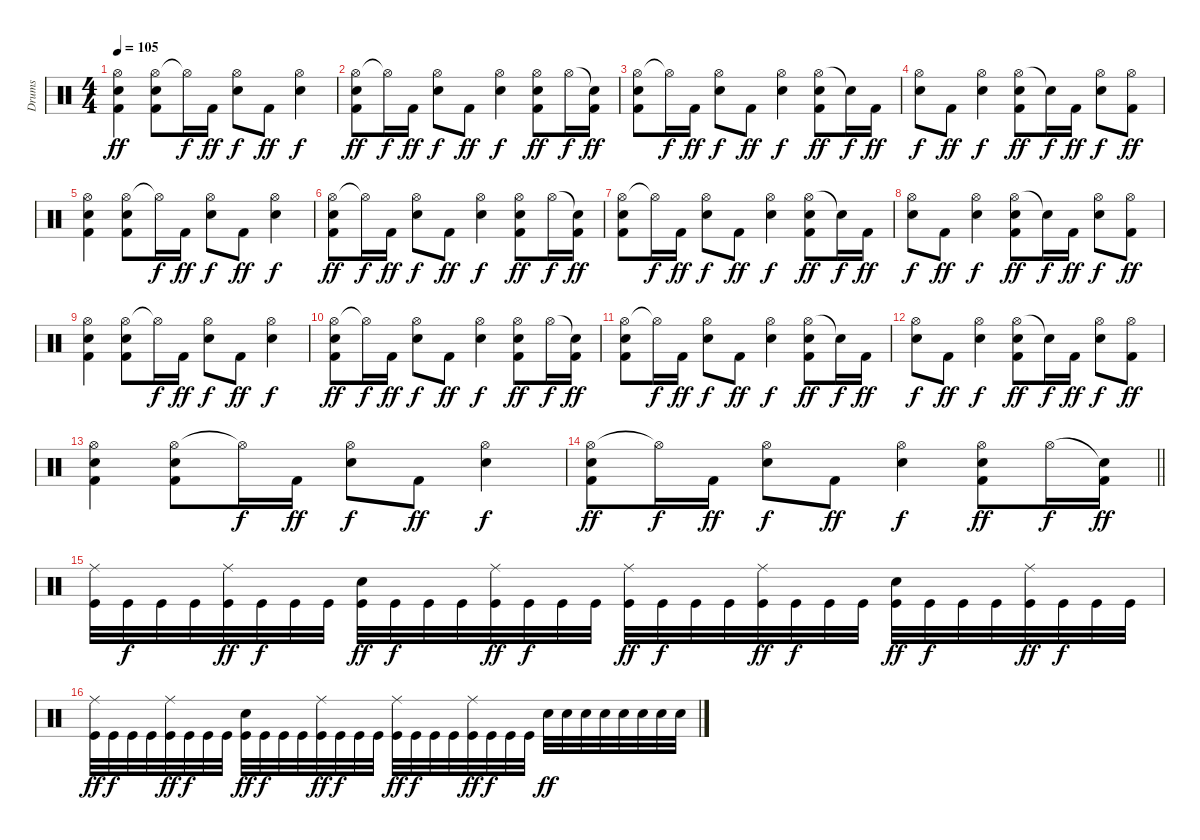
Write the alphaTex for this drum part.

\track ("Drums" "Drums") {instrument percussion}
\staff {score}
\articulation defaults
\ts (4 4)
\tempo 105
\clef neutral
\ks c
("Hi-Hat (open)" "Snare (hit) 2" "Kick (hit) 2").4{dy ff} ("Hi-Hat (open)" "Snare (hit) 2" "Kick (hit) 2").8 "Hi-Hat (open)"{t}.16{dy f} "Kick (hit) 2".16{dy ff} ("Hi-Hat (open)" "Snare (hit) 2").8{dy f} "Kick (hit) 2".8{dy ff} ("Hi-Hat (open)" "Snare (hit) 2").4{dy f} |
("Hi-Hat (open)" "Snare (hit) 2" "Kick (hit) 2").8{dy ff} "Hi-Hat (open)"{t}.16{dy f} "Kick (hit) 2".16{dy ff} ("Hi-Hat (open)" "Snare (hit) 2").8{dy f} "Kick (hit) 2".8{dy ff} ("Hi-Hat (open)" "Snare (hit) 2").4{dy f} ("Hi-Hat (open)" "Snare (hit) 2" "Kick (hit) 2").8{dy ff} "Hi-Hat (open)".16{dy f} ("Snare (hit)"{t} "Kick (hit) 2").16{dy ff} |
("Hi-Hat (open)" "Snare (hit) 2" "Kick (hit) 2").8 "Hi-Hat (open)"{t}.16{dy f} "Kick (hit) 2".16{dy ff} ("Hi-Hat (open)" "Snare (hit) 2").8{dy f} "Kick (hit) 2".8{dy ff} ("Hi-Hat (open)" "Snare (hit) 2").4{dy f} ("Hi-Hat (open)" "Snare (hit) 2" "Kick (hit) 2").8{dy ff} "Snare (hit)"{t}.16{dy f} "Kick (hit) 2".16{dy ff} |
("Hi-Hat (open)" "Snare (hit) 2").8{dy f} "Kick (hit) 2".8{dy ff} ("Hi-Hat (open)" "Snare (hit) 2").4{dy f} ("Hi-Hat (open)" "Snare (hit) 2" "Kick (hit) 2").8{dy ff} "Snare (hit)"{t}.16{dy f} "Kick (hit) 2".16{dy ff} ("Hi-Hat (open)" "Snare (hit) 2").8{dy f} ("Hi-Hat (open)" "Kick (hit) 2").8{dy ff} |
("Hi-Hat (open)" "Snare (hit) 2" "Kick (hit) 2").4 ("Hi-Hat (open)" "Snare (hit) 2" "Kick (hit) 2").8 "Hi-Hat (open)"{t}.16{dy f} "Kick (hit) 2".16{dy ff} ("Hi-Hat (open)" "Snare (hit) 2").8{dy f} "Kick (hit) 2".8{dy ff} ("Hi-Hat (open)" "Snare (hit) 2").4{dy f} |
("Hi-Hat (open)" "Snare (hit) 2" "Kick (hit) 2").8{dy ff} "Hi-Hat (open)"{t}.16{dy f} "Kick (hit) 2".16{dy ff} ("Hi-Hat (open)" "Snare (hit) 2").8{dy f} "Kick (hit) 2".8{dy ff} ("Hi-Hat (open)" "Snare (hit) 2").4{dy f} ("Hi-Hat (open)" "Snare (hit) 2" "Kick (hit) 2").8{dy ff} "Hi-Hat (open)".16{dy f} ("Snare (hit)"{t} "Kick (hit) 2").16{dy ff} |
("Hi-Hat (open)" "Snare (hit) 2" "Kick (hit) 2").8 "Hi-Hat (open)"{t}.16{dy f} "Kick (hit) 2".16{dy ff} ("Hi-Hat (open)" "Snare (hit) 2").8{dy f} "Kick (hit) 2".8{dy ff} ("Hi-Hat (open)" "Snare (hit) 2").4{dy f} ("Hi-Hat (open)" "Snare (hit) 2" "Kick (hit) 2").8{dy ff} "Snare (hit)"{t}.16{dy f} "Kick (hit) 2".16{dy ff} |
("Hi-Hat (open)" "Snare (hit) 2").8{dy f} "Kick (hit) 2".8{dy ff} ("Hi-Hat (open)" "Snare (hit) 2").4{dy f} ("Hi-Hat (open)" "Snare (hit) 2" "Kick (hit) 2").8{dy ff} "Snare (hit)"{t}.16{dy f} "Kick (hit) 2".16{dy ff} ("Hi-Hat (open)" "Snare (hit) 2").8{dy f} ("Hi-Hat (open)" "Kick (hit) 2").8{dy ff} |
("Hi-Hat (open)" "Snare (hit) 2" "Kick (hit) 2").4 ("Hi-Hat (open)" "Snare (hit) 2" "Kick (hit) 2").8 "Hi-Hat (open)"{t}.16{dy f} "Kick (hit) 2".16{dy ff} ("Hi-Hat (open)" "Snare (hit) 2").8{dy f} "Kick (hit) 2".8{dy ff} ("Hi-Hat (open)" "Snare (hit) 2").4{dy f} |
("Hi-Hat (open)" "Snare (hit) 2" "Kick (hit) 2").8{dy ff} "Hi-Hat (open)"{t}.16{dy f} "Kick (hit) 2".16{dy ff} ("Hi-Hat (open)" "Snare (hit) 2").8{dy f} "Kick (hit) 2".8{dy ff} ("Hi-Hat (open)" "Snare (hit) 2").4{dy f} ("Hi-Hat (open)" "Snare (hit) 2" "Kick (hit) 2").8{dy ff} "Hi-Hat (open)".16{dy f} ("Snare (hit)"{t} "Kick (hit) 2").16{dy ff} |
("Hi-Hat (open)" "Snare (hit) 2" "Kick (hit) 2").8 "Hi-Hat (open)"{t}.16{dy f} "Kick (hit) 2".16{dy ff} ("Hi-Hat (open)" "Snare (hit) 2").8{dy f} "Kick (hit) 2".8{dy ff} ("Hi-Hat (open)" "Snare (hit) 2").4{dy f} ("Hi-Hat (open)" "Snare (hit) 2" "Kick (hit) 2").8{dy ff} "Snare (hit)"{t}.16{dy f} "Kick (hit) 2".16{dy ff} |
("Hi-Hat (open)" "Snare (hit) 2").8{dy f} "Kick (hit) 2".8{dy ff} ("Hi-Hat (open)" "Snare (hit) 2").4{dy f} ("Hi-Hat (open)" "Snare (hit) 2" "Kick (hit) 2").8{dy ff} "Snare (hit)"{t}.16{dy f} "Kick (hit) 2".16{dy ff} ("Hi-Hat (open)" "Snare (hit) 2").8{dy f} ("Hi-Hat (open)" "Kick (hit) 2").8{dy ff} |
("Hi-Hat (open)" "Snare (hit) 2" "Kick (hit) 2").4 ("Hi-Hat (open)" "Snare (hit) 2" "Kick (hit) 2").8 "Hi-Hat (open)"{t}.16{dy f} "Kick (hit) 2".16{dy ff} ("Hi-Hat (open)" "Snare (hit) 2").8{dy f} "Kick (hit) 2".8{dy ff} ("Hi-Hat (open)" "Snare (hit) 2").4{dy f} |
\barLineRight lightlight
("Hi-Hat (open)" "Snare (hit) 2" "Kick (hit) 2").8{dy ff} "Hi-Hat (open)"{t}.16{dy f} "Kick (hit) 2".16{dy ff} ("Hi-Hat (open)" "Snare (hit) 2").8{dy f} "Kick (hit) 2".8{dy ff} ("Hi-Hat (open)" "Snare (hit) 2").4{dy f} ("Hi-Hat (open)" "Snare (hit) 2" "Kick (hit) 2").8{dy ff} "Hi-Hat (open)".16{dy f} ("Snare (hit)"{t} "Kick (hit) 2").16{dy ff} |
\section ("" "")
("Ride (middle)" "Kick (hit)").32 "Kick (hit)".32{dy f} "Kick (hit)".32 "Kick (hit)".32 ("Ride (middle)" "Kick (hit)").32{dy ff} "Kick (hit)".32{dy f} "Kick (hit)".32 "Kick (hit)".32 ("Snare (hit) 2" "Kick (hit)").32{dy ff} "Kick (hit)".32{dy f} "Kick (hit)".32 "Kick (hit)".32 ("Ride (middle)" "Kick (hit)").32{dy ff} "Kick (hit)".32{dy f} "Kick (hit)".32 "Kick (hit)".32 ("Ride (middle)" "Kick (hit)").32{dy ff} "Kick (hit)".32{dy f} "Kick (hit)".32 "Kick (hit)".32 ("Ride (middle)" "Kick (hit)").32{dy ff} "Kick (hit)".32{dy f} "Kick (hit)".32 "Kick (hit)".32 ("Snare (hit) 2" "Kick (hit)").32{dy ff} "Kick (hit)".32{dy f} "Kick (hit)".32 "Kick (hit)".32 ("Ride (middle)" "Kick (hit)").32{dy ff} "Kick (hit)".32{dy f} "Kick (hit)".32 "Kick (hit)".32 |
("Ride (middle)" "Kick (hit)").32{dy ff} "Kick (hit)".32{dy f} "Kick (hit)".32 "Kick (hit)".32 ("Ride (middle)" "Kick (hit)").32{dy ff} "Kick (hit)".32{dy f} "Kick (hit)".32 "Kick (hit)".32 ("Snare (hit) 2" "Kick (hit)").32{dy ff} "Kick (hit)".32{dy f} "Kick (hit)".32 "Kick (hit)".32 ("Ride (middle)" "Kick (hit)").32{dy ff} "Kick (hit)".32{dy f} "Kick (hit)".32 "Kick (hit)".32 ("Ride (middle)" "Kick (hit)").32{dy ff} "Kick (hit)".32{dy f} "Kick (hit)".32 "Kick (hit)".32 ("Ride (middle)" "Kick (hit)").32{dy ff} "Kick (hit)".32{dy f} "Kick (hit)".32 "Kick (hit)".32 "Snare (hit) 2".32{dy ff} "Snare (hit) 2".32 "Snare (hit) 2".32 "Snare (hit) 2".32 "Snare (hit) 2".32 "Snare (hit) 2".32 "Snare (hit) 2".32 "Snare (hit) 2".32
